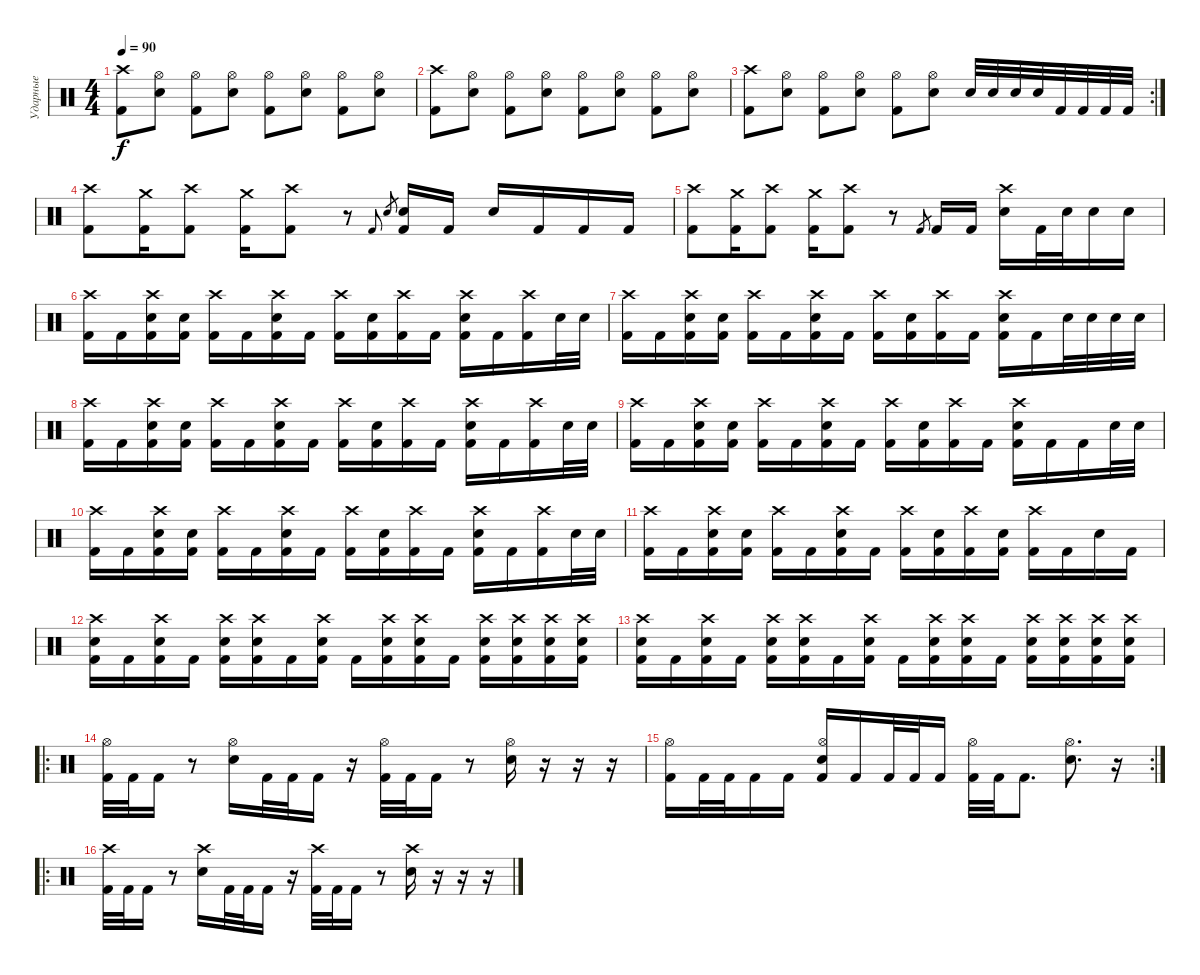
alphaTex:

\track ("Ударные" "Ударные") {instrument percussion}
\staff {score}
\articulation defaults
\ts (4 4)
\tempo 90
\clef neutral
\ks c
("Crash high (hit)" "Kick (hit) 2").8{dy f} ("Hi-Hat (open)" "Electric Snare (hit)").8 ("Hi-Hat (open)" "Kick (hit) 2").8 ("Hi-Hat (open)" "Electric Snare (hit)").8 ("Hi-Hat (open)" "Kick (hit) 2").8 ("Hi-Hat (open)" "Electric Snare (hit)").8 ("Hi-Hat (open)" "Kick (hit) 2").8 ("Hi-Hat (open)" "Electric Snare (hit)").8 |
("Crash high (hit)" "Kick (hit) 2").8 ("Hi-Hat (open)" "Electric Snare (hit)").8 ("Hi-Hat (open)" "Kick (hit) 2").8 ("Hi-Hat (open)" "Electric Snare (hit)").8 ("Hi-Hat (open)" "Kick (hit) 2").8 ("Hi-Hat (open)" "Electric Snare (hit)").8 ("Hi-Hat (open)" "Kick (hit) 2").8 ("Hi-Hat (open)" "Electric Snare (hit)").8 |
\rc 2
("Crash high (hit)" "Kick (hit) 2").8 ("Hi-Hat (open)" "Electric Snare (hit)").8 ("Hi-Hat (open)" "Kick (hit) 2").8 ("Hi-Hat (open)" "Electric Snare (hit)").8 ("Hi-Hat (open)" "Kick (hit) 2").8 ("Hi-Hat (open)" "Electric Snare (hit)").8 "Electric Snare (hit)".32 "Electric Snare (hit)".32 "Electric Snare (hit)".32 "Electric Snare (hit)".32 "Kick (hit) 2".32 "Kick (hit) 2".32 "Kick (hit) 2".32 "Kick (hit) 2".32 |
("Kick (hit) 2" "Crash high (hit)").8 ("Kick (hit) 2" "Crash medium (hit)").16 ("Kick (hit) 2" "Crash high (hit)").8 ("Kick (hit) 2" "Crash medium (hit)").16 ("Kick (hit) 2" "Crash high (hit)").8 r.8 "Kick (hit) 2".16{gr onbeat} "Electric Snare (hit)".16{gr} ("Kick (hit) 2" "Electric Snare (hit)").16 "Kick (hit) 2".16 "Electric Snare (hit)".16 "Kick (hit) 2".16 "Kick (hit) 2".16 "Kick (hit) 2".16 |
("Kick (hit) 2" "Crash high (hit)").8 ("Kick (hit) 2" "Crash medium (hit)").16 ("Kick (hit) 2" "Crash high (hit)").8 ("Kick (hit) 2" "Crash medium (hit)").16 ("Kick (hit) 2" "Crash high (hit)").8 r.8 "Kick (hit) 2".8{gr} "Kick (hit) 2".16 "Kick (hit) 2".16 ("Electric Snare (hit)" "Crash high (hit)").16 "Kick (hit) 2".32 "Electric Snare (hit)".32 "Electric Snare (hit)".16 "Electric Snare (hit)".16 |
("Kick (hit) 2" "Crash high (hit)").16 "Kick (hit) 2".16 ("Kick (hit) 2" "Electric Snare (hit)" "Crash high (hit)").16 ("Kick (hit) 2" "Electric Snare (hit)").16 ("Kick (hit) 2" "Crash high (hit)").16 "Kick (hit) 2".16 ("Kick (hit) 2" "Electric Snare (hit)" "Crash high (hit)").16 "Kick (hit) 2".16 ("Kick (hit) 2" "Crash high (hit)").16 ("Kick (hit) 2" "Electric Snare (hit)").16 ("Kick (hit) 2" "Crash high (hit)").16 "Kick (hit) 2".16 ("Kick (hit) 2" "Electric Snare (hit)" "Crash high (hit)").16 "Kick (hit) 2".16 ("Kick (hit) 2" "Crash high (hit)").16 "Electric Snare (hit)".32 "Electric Snare (hit)".32 |
("Kick (hit) 2" "Crash high (hit)").16 "Kick (hit) 2".16 ("Kick (hit) 2" "Electric Snare (hit)" "Crash high (hit)").16 ("Kick (hit) 2" "Electric Snare (hit)").16 ("Kick (hit) 2" "Crash high (hit)").16 "Kick (hit) 2".16 ("Kick (hit) 2" "Electric Snare (hit)" "Crash high (hit)").16 "Kick (hit) 2".16 ("Kick (hit) 2" "Crash high (hit)").16 ("Kick (hit) 2" "Electric Snare (hit)").16 ("Kick (hit) 2" "Crash high (hit)").16 "Kick (hit) 2".16 ("Kick (hit) 2" "Electric Snare (hit)" "Crash high (hit)").16 "Kick (hit) 2".16 "Electric Snare (hit)".32 "Electric Snare (hit)".32 "Electric Snare (hit)".32 "Electric Snare (hit)".32 |
("Kick (hit) 2" "Crash high (hit)").16 "Kick (hit) 2".16 ("Kick (hit) 2" "Electric Snare (hit)" "Crash high (hit)").16 ("Kick (hit) 2" "Electric Snare (hit)").16 ("Kick (hit) 2" "Crash high (hit)").16 "Kick (hit) 2".16 ("Kick (hit) 2" "Electric Snare (hit)" "Crash high (hit)").16 "Kick (hit) 2".16 ("Kick (hit) 2" "Crash high (hit)").16 ("Kick (hit) 2" "Electric Snare (hit)").16 ("Kick (hit) 2" "Crash high (hit)").16 "Kick (hit) 2".16 ("Kick (hit) 2" "Electric Snare (hit)" "Crash high (hit)").16 "Kick (hit) 2".16 ("Kick (hit) 2" "Crash high (hit)").16 "Electric Snare (hit)".32 "Electric Snare (hit)".32 |
("Kick (hit) 2" "Crash high (hit)").16 "Kick (hit) 2".16 ("Kick (hit) 2" "Electric Snare (hit)" "Crash high (hit)").16 ("Kick (hit) 2" "Electric Snare (hit)").16 ("Kick (hit) 2" "Crash high (hit)").16 "Kick (hit) 2".16 ("Kick (hit) 2" "Electric Snare (hit)" "Crash high (hit)").16 "Kick (hit) 2".16 ("Kick (hit) 2" "Crash high (hit)").16 ("Kick (hit) 2" "Electric Snare (hit)").16 ("Kick (hit) 2" "Crash high (hit)").16 "Kick (hit) 2".16 ("Kick (hit) 2" "Electric Snare (hit)" "Crash high (hit)").16 "Kick (hit) 2".16 "Kick (hit) 2".16 "Electric Snare (hit)".32 "Electric Snare (hit)".32 |
("Kick (hit) 2" "Crash high (hit)").16 "Kick (hit) 2".16 ("Kick (hit) 2" "Electric Snare (hit)" "Crash high (hit)").16 ("Kick (hit) 2" "Electric Snare (hit)").16 ("Kick (hit) 2" "Crash high (hit)").16 "Kick (hit) 2".16 ("Kick (hit) 2" "Electric Snare (hit)" "Crash high (hit)").16 "Kick (hit) 2".16 ("Kick (hit) 2" "Crash high (hit)").16 ("Kick (hit) 2" "Electric Snare (hit)").16 ("Kick (hit) 2" "Crash high (hit)").16 "Kick (hit) 2".16 ("Kick (hit) 2" "Electric Snare (hit)" "Crash high (hit)").16 "Kick (hit) 2".16 ("Kick (hit) 2" "Crash high (hit)").16 "Electric Snare (hit)".32 "Electric Snare (hit)".32 |
("Kick (hit) 2" "Crash high (hit)").16 "Kick (hit) 2".16 ("Kick (hit) 2" "Electric Snare (hit)" "Crash high (hit)").16 ("Kick (hit) 2" "Electric Snare (hit)").16 ("Kick (hit) 2" "Crash high (hit)").16 "Kick (hit) 2".16 ("Kick (hit) 2" "Electric Snare (hit)" "Crash high (hit)").16 "Kick (hit) 2".16 ("Kick (hit) 2" "Crash high (hit)").16 ("Kick (hit) 2" "Electric Snare (hit)").16 ("Kick (hit) 2" "Crash high (hit)").16 ("Kick (hit) 2" "Electric Snare (hit)").16 ("Kick (hit) 2" "Crash high (hit)").16 "Kick (hit) 2".16 "Electric Snare (hit)".16 "Kick (hit) 2".16 |
("Kick (hit) 2" "Electric Snare (hit)" "Crash high (hit)").16 "Kick (hit) 2".16 ("Kick (hit) 2" "Electric Snare (hit)" "Crash high (hit)").16 "Kick (hit) 2".16 ("Kick (hit) 2" "Electric Snare (hit)" "Crash high (hit)").16 ("Kick (hit) 2" "Electric Snare (hit)" "Crash high (hit)").16 "Kick (hit) 2".16 ("Kick (hit) 2" "Electric Snare (hit)" "Crash high (hit)").16 "Kick (hit) 2".16 ("Kick (hit) 2" "Electric Snare (hit)" "Crash high (hit)").16 ("Kick (hit) 2" "Electric Snare (hit)" "Crash high (hit)").16 "Kick (hit) 2".16 ("Kick (hit) 2" "Electric Snare (hit)" "Crash high (hit)").16 ("Kick (hit) 2" "Electric Snare (hit)" "Crash high (hit)").16 ("Kick (hit) 2" "Electric Snare (hit)" "Crash high (hit)").16 ("Kick (hit) 2" "Electric Snare (hit)" "Crash high (hit)").16 |
("Kick (hit) 2" "Electric Snare (hit)" "Crash high (hit)").16 "Kick (hit) 2".16 ("Kick (hit) 2" "Electric Snare (hit)" "Crash high (hit)").16 "Kick (hit) 2".16 ("Kick (hit) 2" "Electric Snare (hit)" "Crash high (hit)").16 ("Kick (hit) 2" "Electric Snare (hit)" "Crash high (hit)").16 "Kick (hit) 2".16 ("Kick (hit) 2" "Electric Snare (hit)" "Crash high (hit)").16 "Kick (hit) 2".16 ("Kick (hit) 2" "Electric Snare (hit)" "Crash high (hit)").16 ("Kick (hit) 2" "Electric Snare (hit)" "Crash high (hit)").16 "Kick (hit) 2".16 ("Kick (hit) 2" "Electric Snare (hit)" "Crash high (hit)").16 ("Kick (hit) 2" "Electric Snare (hit)" "Crash high (hit)").16 ("Kick (hit) 2" "Electric Snare (hit)" "Crash high (hit)").16 ("Kick (hit) 2" "Electric Snare (hit)" "Crash high (hit)").16 |
\ro
("Kick (hit) 2" "Hi-Hat (open)").32 "Kick (hit) 2".32 "Kick (hit) 2".16 r.8 ("Electric Snare (hit)" "Hi-Hat (open)").16 "Kick (hit) 2".32 "Kick (hit) 2".32 "Kick (hit) 2".16 r.16 ("Kick (hit) 2" "Hi-Hat (open)").32 "Kick (hit) 2".32 "Kick (hit) 2".16 r.8 ("Electric Snare (hit)" "Hi-Hat (open)").16 r.16 r.16 r.16 |
\rc 2
("Kick (hit) 2" "Hi-Hat (open)").16 "Kick (hit) 2".32 "Kick (hit) 2".32 "Kick (hit) 2".16 "Kick (hit) 2".16 ("Kick (hit) 2" "Electric Snare (hit)" "Hi-Hat (open)").16 "Kick (hit) 2".16 "Kick (hit) 2".32 "Kick (hit) 2".32 "Kick (hit) 2".16 ("Kick (hit) 2" "Hi-Hat (open)").32 "Kick (hit) 2".32 "Kick (hit) 2".8{d} ("Electric Snare (hit)" "Hi-Hat (open)").8{d} r.16 |
\ro
("Kick (hit) 2" "Crash high (hit)").32 "Kick (hit) 2".32 "Kick (hit) 2".16 r.8 ("Electric Snare (hit)" "Crash high (hit)").16 "Kick (hit) 2".32 "Kick (hit) 2".32 "Kick (hit) 2".16 r.16 ("Kick (hit) 2" "Crash high (hit)").32 "Kick (hit) 2".32 "Kick (hit) 2".16 r.8 ("Electric Snare (hit)" "Crash high (hit)").16 r.16 r.16 r.16
